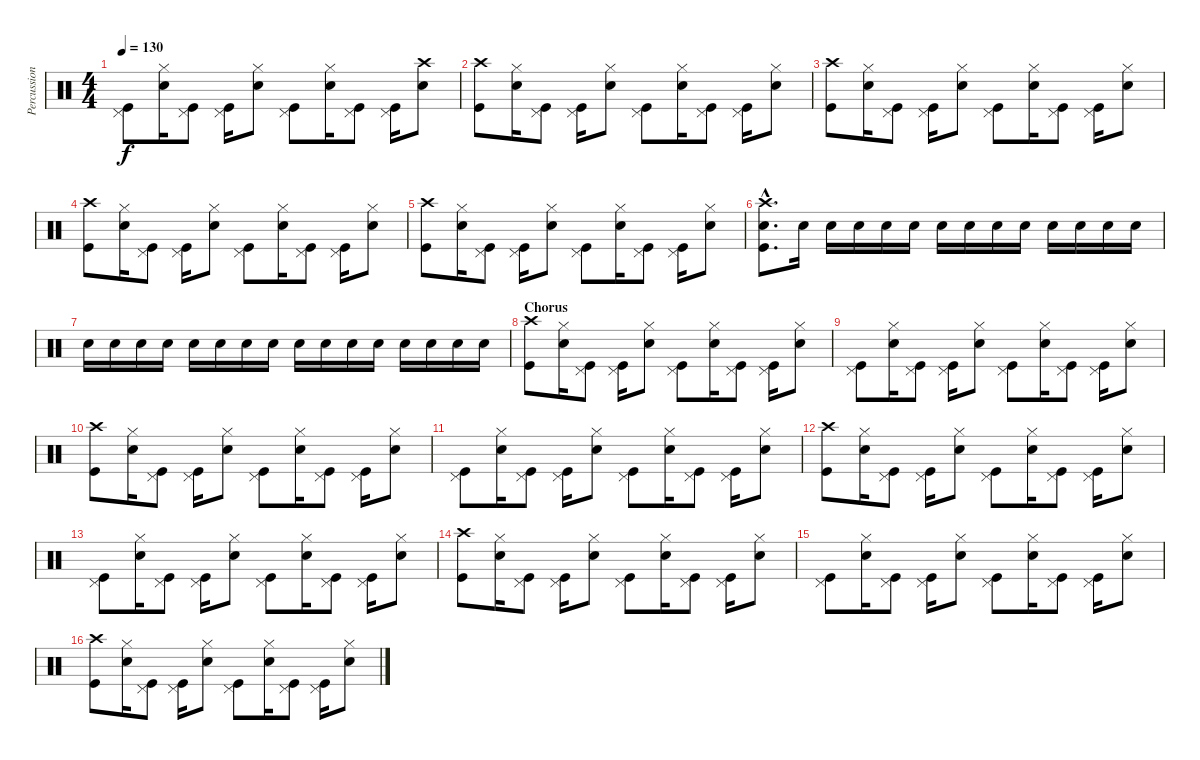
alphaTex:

\track ("Percussion" "Percussion") {instrument percussion}
\staff {score}
\articulation defaults
\ts (4 4)
\tempo 130
\clef neutral
\ks c
("Pedal Hi-Hat (hit)" "Kick (hit)").8{dy f} ("Hi-Hat (closed)" "Snare (hit) 2").16 ("Pedal Hi-Hat (hit)" "Kick (hit)").8 ("Pedal Hi-Hat (hit)" "Kick (hit)").16 ("Hi-Hat (closed)" "Snare (hit) 2").8 ("Pedal Hi-Hat (hit)" "Kick (hit)").8 ("Hi-Hat (closed)" "Snare (hit) 2").16 ("Pedal Hi-Hat (hit)" "Kick (hit)").8 ("Pedal Hi-Hat (hit)" "Kick (hit)").16 ("Crash high (hit)" "Snare (hit) 2").8 |
("Crash high (hit)" "Kick (hit)").8 ("Hi-Hat (closed)" "Snare (hit) 2").16 ("Pedal Hi-Hat (hit)" "Kick (hit)").8 ("Pedal Hi-Hat (hit)" "Kick (hit)").16 ("Hi-Hat (closed)" "Snare (hit) 2").8 ("Pedal Hi-Hat (hit)" "Kick (hit)").8 ("Hi-Hat (closed)" "Snare (hit) 2").16 ("Pedal Hi-Hat (hit)" "Kick (hit)").8 ("Pedal Hi-Hat (hit)" "Kick (hit)").16 ("Hi-Hat (closed)" "Snare (hit) 2").8 |
("Crash high (hit)" "Kick (hit)").8 ("Hi-Hat (closed)" "Snare (hit) 2").16 ("Pedal Hi-Hat (hit)" "Kick (hit)").8 ("Pedal Hi-Hat (hit)" "Kick (hit)").16 ("Hi-Hat (closed)" "Snare (hit) 2").8 ("Pedal Hi-Hat (hit)" "Kick (hit)").8 ("Hi-Hat (closed)" "Snare (hit) 2").16 ("Pedal Hi-Hat (hit)" "Kick (hit)").8 ("Pedal Hi-Hat (hit)" "Kick (hit)").16 ("Hi-Hat (closed)" "Snare (hit) 2").8 |
("Crash high (hit)" "Kick (hit)").8 ("Hi-Hat (closed)" "Snare (hit) 2").16 ("Pedal Hi-Hat (hit)" "Kick (hit)").8 ("Pedal Hi-Hat (hit)" "Kick (hit)").16 ("Hi-Hat (closed)" "Snare (hit) 2").8 ("Pedal Hi-Hat (hit)" "Kick (hit)").8 ("Hi-Hat (closed)" "Snare (hit) 2").16 ("Pedal Hi-Hat (hit)" "Kick (hit)").8 ("Pedal Hi-Hat (hit)" "Kick (hit)").16 ("Hi-Hat (closed)" "Snare (hit) 2").8 |
("Crash high (hit)" "Kick (hit)").8 ("Hi-Hat (closed)" "Snare (hit) 2").16 ("Pedal Hi-Hat (hit)" "Kick (hit)").8 ("Pedal Hi-Hat (hit)" "Kick (hit)").16 ("Hi-Hat (closed)" "Snare (hit) 2").8 ("Pedal Hi-Hat (hit)" "Kick (hit)").8 ("Hi-Hat (closed)" "Snare (hit) 2").16 ("Pedal Hi-Hat (hit)" "Kick (hit)").8 ("Pedal Hi-Hat (hit)" "Kick (hit)").16 ("Hi-Hat (closed)" "Snare (hit) 2").8 |
("Crash high (hit)"{hac} "Snare (hit) 2"{hac} "Kick (hit)"{hac}).8{d} "Snare (hit) 2".16{volume 0} "Snare (hit) 2".16{volume 12} "Snare (hit) 2".16 "Snare (hit) 2".16 "Snare (hit) 2".16 "Snare (hit) 2".16 "Snare (hit) 2".16 "Snare (hit) 2".16 "Snare (hit) 2".16 "Snare (hit) 2".16 "Snare (hit) 2".16 "Snare (hit) 2".16 "Snare (hit) 2".16 |
"Snare (hit) 2".16 "Snare (hit) 2".16 "Snare (hit) 2".16 "Snare (hit) 2".16 "Snare (hit) 2".16 "Snare (hit) 2".16 "Snare (hit) 2".16 "Snare (hit) 2".16 "Snare (hit) 2".16 "Snare (hit) 2".16 "Snare (hit) 2".16 "Snare (hit) 2".16 "Snare (hit) 2".16 "Snare (hit) 2".16 "Snare (hit) 2".16 "Snare (hit) 2".16 |
\section ("" "Chorus")
("Crash high (hit)" "Kick (hit)").8 ("Hi-Hat (closed)" "Snare (hit) 2").16 ("Pedal Hi-Hat (hit)" "Kick (hit)").8 ("Pedal Hi-Hat (hit)" "Kick (hit)").16 ("Hi-Hat (closed)" "Snare (hit) 2").8 ("Pedal Hi-Hat (hit)" "Kick (hit)").8 ("Hi-Hat (closed)" "Snare (hit) 2").16 ("Pedal Hi-Hat (hit)" "Kick (hit)").8 ("Pedal Hi-Hat (hit)" "Kick (hit)").16 ("Hi-Hat (closed)" "Snare (hit) 2").8 |
("Pedal Hi-Hat (hit)" "Kick (hit)").8 ("Hi-Hat (closed)" "Snare (hit) 2").16 ("Pedal Hi-Hat (hit)" "Kick (hit)").8 ("Pedal Hi-Hat (hit)" "Kick (hit)").16 ("Hi-Hat (closed)" "Snare (hit) 2").8 ("Pedal Hi-Hat (hit)" "Kick (hit)").8 ("Hi-Hat (closed)" "Snare (hit) 2").16 ("Pedal Hi-Hat (hit)" "Kick (hit)").8 ("Pedal Hi-Hat (hit)" "Kick (hit)").16 ("Hi-Hat (closed)" "Snare (hit) 2").8 |
("Crash high (hit)" "Kick (hit)").8 ("Hi-Hat (closed)" "Snare (hit) 2").16 ("Pedal Hi-Hat (hit)" "Kick (hit)").8 ("Pedal Hi-Hat (hit)" "Kick (hit)").16 ("Hi-Hat (closed)" "Snare (hit) 2").8 ("Pedal Hi-Hat (hit)" "Kick (hit)").8 ("Hi-Hat (closed)" "Snare (hit) 2").16 ("Pedal Hi-Hat (hit)" "Kick (hit)").8 ("Pedal Hi-Hat (hit)" "Kick (hit)").16 ("Hi-Hat (closed)" "Snare (hit) 2").8 |
("Pedal Hi-Hat (hit)" "Kick (hit)").8 ("Hi-Hat (closed)" "Snare (hit) 2").16 ("Pedal Hi-Hat (hit)" "Kick (hit)").8 ("Pedal Hi-Hat (hit)" "Kick (hit)").16 ("Hi-Hat (closed)" "Snare (hit) 2").8 ("Pedal Hi-Hat (hit)" "Kick (hit)").8 ("Hi-Hat (closed)" "Snare (hit) 2").16 ("Pedal Hi-Hat (hit)" "Kick (hit)").8 ("Pedal Hi-Hat (hit)" "Kick (hit)").16 ("Hi-Hat (closed)" "Snare (hit) 2").8 |
("Crash high (hit)" "Kick (hit)").8 ("Hi-Hat (closed)" "Snare (hit) 2").16 ("Pedal Hi-Hat (hit)" "Kick (hit)").8 ("Pedal Hi-Hat (hit)" "Kick (hit)").16 ("Hi-Hat (closed)" "Snare (hit) 2").8 ("Pedal Hi-Hat (hit)" "Kick (hit)").8 ("Hi-Hat (closed)" "Snare (hit) 2").16 ("Pedal Hi-Hat (hit)" "Kick (hit)").8 ("Pedal Hi-Hat (hit)" "Kick (hit)").16 ("Hi-Hat (closed)" "Snare (hit) 2").8 |
("Pedal Hi-Hat (hit)" "Kick (hit)").8 ("Hi-Hat (closed)" "Snare (hit) 2").16 ("Pedal Hi-Hat (hit)" "Kick (hit)").8 ("Pedal Hi-Hat (hit)" "Kick (hit)").16 ("Hi-Hat (closed)" "Snare (hit) 2").8 ("Pedal Hi-Hat (hit)" "Kick (hit)").8 ("Hi-Hat (closed)" "Snare (hit) 2").16 ("Pedal Hi-Hat (hit)" "Kick (hit)").8 ("Pedal Hi-Hat (hit)" "Kick (hit)").16 ("Hi-Hat (closed)" "Snare (hit) 2").8 |
("Crash high (hit)" "Kick (hit)").8 ("Hi-Hat (closed)" "Snare (hit) 2").16 ("Pedal Hi-Hat (hit)" "Kick (hit)").8 ("Pedal Hi-Hat (hit)" "Kick (hit)").16 ("Hi-Hat (closed)" "Snare (hit) 2").8 ("Pedal Hi-Hat (hit)" "Kick (hit)").8 ("Hi-Hat (closed)" "Snare (hit) 2").16 ("Pedal Hi-Hat (hit)" "Kick (hit)").8 ("Pedal Hi-Hat (hit)" "Kick (hit)").16 ("Hi-Hat (closed)" "Snare (hit) 2").8 |
("Pedal Hi-Hat (hit)" "Kick (hit)").8 ("Hi-Hat (closed)" "Snare (hit) 2").16 ("Pedal Hi-Hat (hit)" "Kick (hit)").8 ("Pedal Hi-Hat (hit)" "Kick (hit)").16 ("Hi-Hat (closed)" "Snare (hit) 2").8 ("Pedal Hi-Hat (hit)" "Kick (hit)").8 ("Hi-Hat (closed)" "Snare (hit) 2").16 ("Pedal Hi-Hat (hit)" "Kick (hit)").8 ("Pedal Hi-Hat (hit)" "Kick (hit)").16 ("Hi-Hat (closed)" "Snare (hit) 2").8 |
("Crash high (hit)" "Kick (hit)").8 ("Hi-Hat (closed)" "Snare (hit) 2").16 ("Pedal Hi-Hat (hit)" "Kick (hit)").8 ("Pedal Hi-Hat (hit)" "Kick (hit)").16 ("Hi-Hat (closed)" "Snare (hit) 2").8 ("Pedal Hi-Hat (hit)" "Kick (hit)").8 ("Hi-Hat (closed)" "Snare (hit) 2").16 ("Pedal Hi-Hat (hit)" "Kick (hit)").8 ("Pedal Hi-Hat (hit)" "Kick (hit)").16 ("Hi-Hat (closed)" "Snare (hit) 2").8
